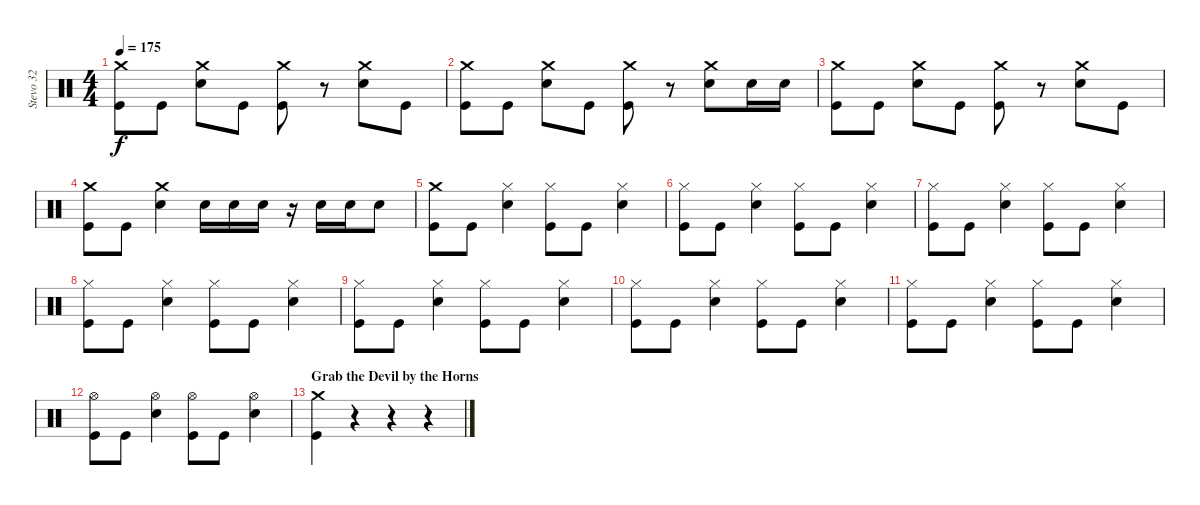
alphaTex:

\track ("Stevo 32" "Stevo 32") {instrument percussion}
\staff {score}
\articulation defaults
\ts (4 4)
\tempo 175
\clef neutral
\ks c
("Crash medium (hit)" "Kick (hit)").8{dy f} "Kick (hit)".8 ("Crash medium (hit)" "Electric Snare (hit)").8 "Kick (hit)".8 ("Crash medium (hit)" "Kick (hit)").8 r.8 ("Crash medium (hit)" "Electric Snare (hit)").8 "Kick (hit)".8 |
("Crash medium (hit)" "Kick (hit)").8 "Kick (hit)".8 ("Crash medium (hit)" "Electric Snare (hit)").8 "Kick (hit)".8 ("Crash medium (hit)" "Kick (hit)").8 r.8 ("Crash medium (hit)" "Electric Snare (hit)").8 "Electric Snare (hit)".16 "Electric Snare (hit)".16 |
("Crash medium (hit)" "Kick (hit)").8 "Kick (hit)".8 ("Crash medium (hit)" "Electric Snare (hit)").8 "Kick (hit)".8 ("Crash medium (hit)" "Kick (hit)").8 r.8 ("Crash medium (hit)" "Electric Snare (hit)").8 "Kick (hit)".8 |
("Crash medium (hit)" "Kick (hit)").8 "Kick (hit)".8 ("Crash medium (hit)" "Electric Snare (hit)").4 "Electric Snare (hit)".16 "Electric Snare (hit)".16 "Electric Snare (hit)".16 r.16 "Electric Snare (hit)".16 "Electric Snare (hit)".16 "Electric Snare (hit)".8 |
("Crash medium (hit)" "Kick (hit)").8 "Kick (hit)".8 ("Hi-Hat (closed)" "Electric Snare (hit)").4 ("Hi-Hat (closed)" "Kick (hit)").8 "Kick (hit)".8 ("Hi-Hat (closed)" "Electric Snare (hit)").4 |
("Hi-Hat (closed)" "Kick (hit)").8 "Kick (hit)".8 ("Hi-Hat (closed)" "Electric Snare (hit)").4 ("Hi-Hat (closed)" "Kick (hit)").8 "Kick (hit)".8 ("Hi-Hat (closed)" "Electric Snare (hit)").4 |
("Hi-Hat (closed)" "Kick (hit)").8 "Kick (hit)".8 ("Hi-Hat (closed)" "Electric Snare (hit)").4 ("Hi-Hat (closed)" "Kick (hit)").8 "Kick (hit)".8 ("Hi-Hat (closed)" "Electric Snare (hit)").4 |
("Hi-Hat (closed)" "Kick (hit)").8 "Kick (hit)".8 ("Hi-Hat (closed)" "Electric Snare (hit)").4 ("Hi-Hat (closed)" "Kick (hit)").8 "Kick (hit)".8 ("Hi-Hat (closed)" "Electric Snare (hit)").4 |
("Hi-Hat (closed)" "Kick (hit)").8 "Kick (hit)".8 ("Hi-Hat (closed)" "Electric Snare (hit)").4 ("Hi-Hat (closed)" "Kick (hit)").8 "Kick (hit)".8 ("Hi-Hat (closed)" "Electric Snare (hit)").4 |
("Hi-Hat (closed)" "Kick (hit)").8 "Kick (hit)".8 ("Hi-Hat (closed)" "Electric Snare (hit)").4 ("Hi-Hat (closed)" "Kick (hit)").8 "Kick (hit)".8 ("Hi-Hat (closed)" "Electric Snare (hit)").4 |
("Hi-Hat (closed)" "Kick (hit)").8 "Kick (hit)".8 ("Hi-Hat (closed)" "Electric Snare (hit)").4 ("Hi-Hat (closed)" "Kick (hit)").8 "Kick (hit)".8 ("Hi-Hat (closed)" "Electric Snare (hit)").4 |
("Hi-Hat (open)" "Kick (hit)").8 "Kick (hit)".8 ("Hi-Hat (open)" "Electric Snare (hit)").4 ("Hi-Hat (open)" "Kick (hit)").8 "Kick (hit)".8 ("Hi-Hat (open)" "Electric Snare (hit)").4 |
\section ("" "Grab the Devil by the Horns")
("Crash medium (hit)" "Kick (hit)").4 r.4 r.4 r.4
